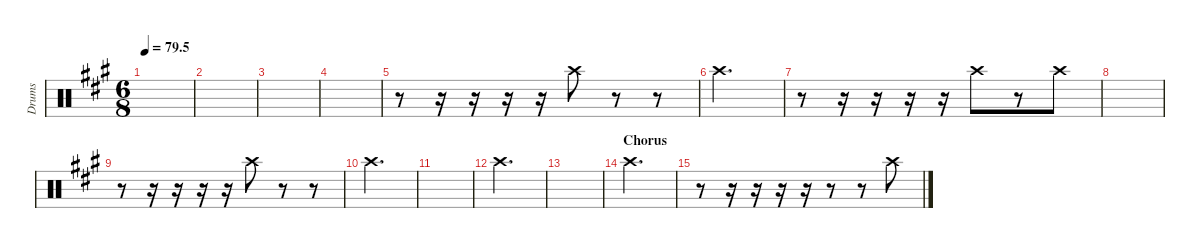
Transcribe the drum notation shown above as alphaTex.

\defaultSystemsLayout 4
\hideDynamics
\bracketExtendMode nobrackets
\otherSystemsTrackNameOrientation horizontal
\track ("Left crash" "Drums") {instrument percussion}
\staff {score}
\articulation defaults
\ts (6 8)
\tempo
79.5
\accidentals auto
\clef neutral
\ottava regular
\simile none
\scale
0.333333
\ks a
|
\scale
0.333333 |
\scale
0.333333 |
\scale
0.333333 |
\scale
0.333333 r.8 r.16 r.16 r.16 r.16 "Crash high (hit)"{acc forcenatural}.8 r.8 r.8 |
\scale
0.333333 "Crash high (hit)"{acc forcenatural}.2{d} |
\scale
0.333333 r.8 r.16 r.16 r.16 r.16 "Crash high (hit)"{acc forcenatural}.8 r.8 "Crash high (hit)"{acc forcenatural}.8 |
\scale
0.333333 |
\scale
0.333333 r.8 r.16 r.16 r.16 r.16 "Crash high (hit)"{acc forcenatural}.8 r.8 r.8 |
\scale
0.333333 "Crash high (hit)"{acc forcenatural}.2{d} |
\scale
0.333333 |
\scale
0.333333 "Crash high (hit)"{acc forcenatural}.2{d} |
\scale
0.333333 |
\section ("" "Chorus")
\scale
0.333333 "Crash high (hit)"{acc forcenatural}.2{d} |
\scale
0.333333 r.8 r.16 r.16 r.16 r.16 r.8 r.8 "Crash high (hit)"{acc forcenatural}.8 |
\scale
0.333333
